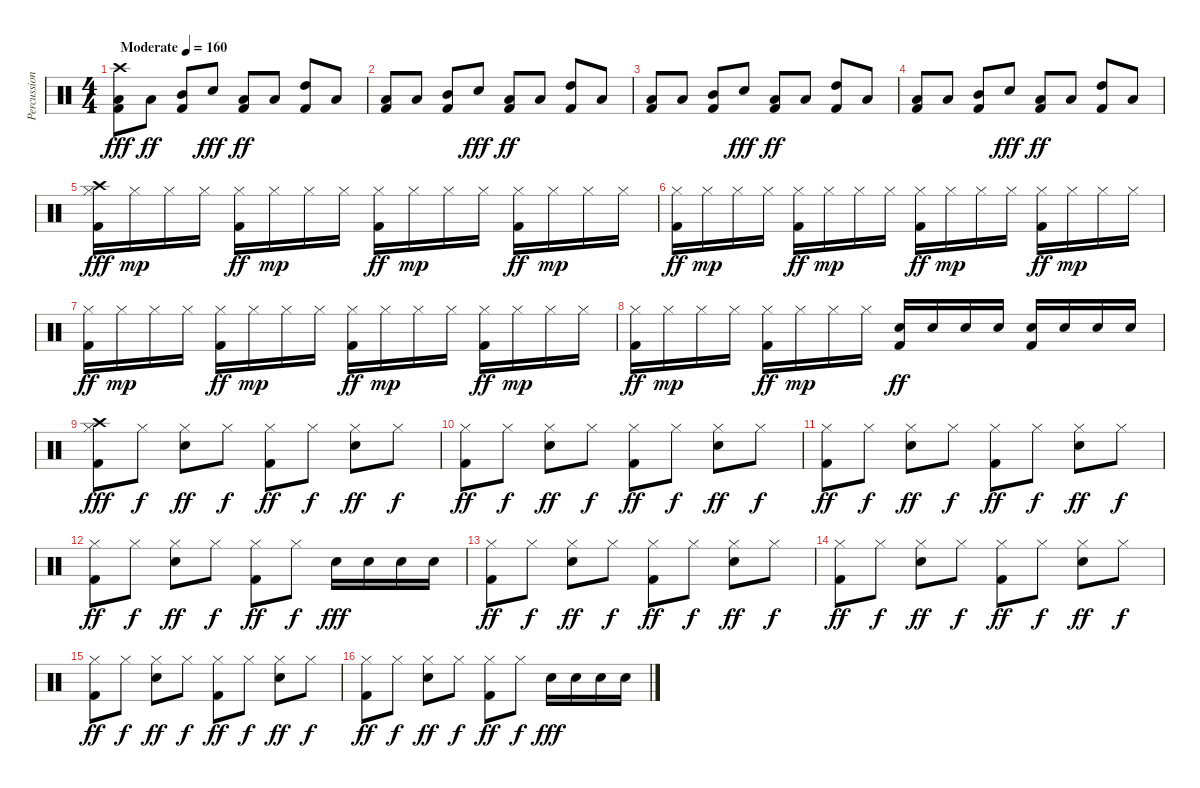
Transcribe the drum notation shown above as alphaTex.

\track ("Percussion" "Percussion") {instrument percussion}
\staff {score}
\articulation defaults
\ts (4 4)
\tempo (160 "Moderate")
\clef neutral
\ks c
("Low Floor Tom (hit)" "Kick (hit) 2" "Crash high (hit)").8{dy fff} "Low Floor Tom (hit)".8{dy ff} ("Mid Tom (hit)" "Kick (hit) 2").8 "Snare (hit) 2".8{dy fff} ("Low Floor Tom (hit)" "Kick (hit) 2").8{dy ff} "Low Floor Tom (hit)".8 ("High Tom (hit)" "Kick (hit) 2").8 "Low Floor Tom (hit)".8 |
("Low Floor Tom (hit)" "Kick (hit) 2").8 "Low Floor Tom (hit)".8 ("Mid Tom (hit)" "Kick (hit) 2").8 "Snare (hit) 2".8{dy fff} ("Low Floor Tom (hit)" "Kick (hit) 2").8{dy ff} "Low Floor Tom (hit)".8 ("High Tom (hit)" "Kick (hit) 2").8 "Low Floor Tom (hit)".8 |
("Low Floor Tom (hit)" "Kick (hit) 2").8 "Low Floor Tom (hit)".8 ("Mid Tom (hit)" "Kick (hit) 2").8 "Snare (hit) 2".8{dy fff} ("Low Floor Tom (hit)" "Kick (hit) 2").8{dy ff} "Low Floor Tom (hit)".8 ("High Tom (hit)" "Kick (hit) 2").8 "Low Floor Tom (hit)".8 |
("Low Floor Tom (hit)" "Kick (hit) 2").8 "Low Floor Tom (hit)".8 ("Mid Tom (hit)" "Kick (hit) 2").8 "Snare (hit) 2".8{dy fff} ("Low Floor Tom (hit)" "Kick (hit) 2").8{dy ff} "Low Floor Tom (hit)".8 ("High Tom (hit)" "Kick (hit) 2").8 "Low Floor Tom (hit)".8 |
("Hi-Hat (closed)" "Kick (hit) 2" "Crash high (hit)").16{dy fff} "Hi-Hat (closed)".16{dy mp} "Hi-Hat (closed)".16 "Hi-Hat (closed)".16 ("Hi-Hat (closed)" "Kick (hit) 2").16{dy ff} "Hi-Hat (closed)".16{dy mp} "Hi-Hat (closed)".16 "Hi-Hat (closed)".16 ("Hi-Hat (closed)" "Kick (hit) 2").16{dy ff} "Hi-Hat (closed)".16{dy mp} "Hi-Hat (closed)".16 "Hi-Hat (closed)".16 ("Hi-Hat (closed)" "Kick (hit) 2").16{dy ff} "Hi-Hat (closed)".16{dy mp} "Hi-Hat (closed)".16 "Hi-Hat (closed)".16 |
("Hi-Hat (closed)" "Kick (hit) 2").16{dy ff} "Hi-Hat (closed)".16{dy mp} "Hi-Hat (closed)".16 "Hi-Hat (closed)".16 ("Hi-Hat (closed)" "Kick (hit) 2").16{dy ff} "Hi-Hat (closed)".16{dy mp} "Hi-Hat (closed)".16 "Hi-Hat (closed)".16 ("Hi-Hat (closed)" "Kick (hit) 2").16{dy ff} "Hi-Hat (closed)".16{dy mp} "Hi-Hat (closed)".16 "Hi-Hat (closed)".16 ("Hi-Hat (closed)" "Kick (hit) 2").16{dy ff} "Hi-Hat (closed)".16{dy mp} "Hi-Hat (closed)".16 "Hi-Hat (closed)".16 |
("Hi-Hat (closed)" "Kick (hit) 2").16{dy ff} "Hi-Hat (closed)".16{dy mp} "Hi-Hat (closed)".16 "Hi-Hat (closed)".16 ("Hi-Hat (closed)" "Kick (hit) 2").16{dy ff} "Hi-Hat (closed)".16{dy mp} "Hi-Hat (closed)".16 "Hi-Hat (closed)".16 ("Hi-Hat (closed)" "Kick (hit) 2").16{dy ff} "Hi-Hat (closed)".16{dy mp} "Hi-Hat (closed)".16 "Hi-Hat (closed)".16 ("Hi-Hat (closed)" "Kick (hit) 2").16{dy ff} "Hi-Hat (closed)".16{dy mp} "Hi-Hat (closed)".16 "Hi-Hat (closed)".16 |
("Hi-Hat (closed)" "Kick (hit) 2").16{dy ff} "Hi-Hat (closed)".16{dy mp} "Hi-Hat (closed)".16 "Hi-Hat (closed)".16 ("Hi-Hat (closed)" "Kick (hit) 2").16{dy ff} "Hi-Hat (closed)".16{dy mp} "Hi-Hat (closed)".16 "Hi-Hat (closed)".16 ("Snare (hit) 2" "Kick (hit) 2").16{dy ff} "Snare (hit) 2".16 "Snare (hit) 2".16 "Snare (hit) 2".16 ("Snare (hit) 2" "Kick (hit) 2").16 "Snare (hit) 2".16 "Snare (hit) 2".16 "Snare (hit) 2".16 |
("Hi-Hat (closed)" "Kick (hit) 2" "Crash high (hit)").8{dy fff} "Hi-Hat (closed)".8{dy f} ("Hi-Hat (closed)" "Snare (hit) 2").8{dy ff} "Hi-Hat (closed)".8{dy f} ("Hi-Hat (closed)" "Kick (hit) 2").8{dy ff} "Hi-Hat (closed)".8{dy f} ("Hi-Hat (closed)" "Snare (hit) 2").8{dy ff} "Hi-Hat (closed)".8{dy f} |
("Hi-Hat (closed)" "Kick (hit) 2").8{dy ff} "Hi-Hat (closed)".8{dy f} ("Hi-Hat (closed)" "Snare (hit) 2").8{dy ff} "Hi-Hat (closed)".8{dy f} ("Hi-Hat (closed)" "Kick (hit) 2").8{dy ff} "Hi-Hat (closed)".8{dy f} ("Hi-Hat (closed)" "Snare (hit) 2").8{dy ff} "Hi-Hat (closed)".8{dy f} |
("Hi-Hat (closed)" "Kick (hit) 2").8{dy ff} "Hi-Hat (closed)".8{dy f} ("Hi-Hat (closed)" "Snare (hit) 2").8{dy ff} "Hi-Hat (closed)".8{dy f} ("Hi-Hat (closed)" "Kick (hit) 2").8{dy ff} "Hi-Hat (closed)".8{dy f} ("Hi-Hat (closed)" "Snare (hit) 2").8{dy ff} "Hi-Hat (closed)".8{dy f} |
("Hi-Hat (closed)" "Kick (hit) 2").8{dy ff} "Hi-Hat (closed)".8{dy f} ("Hi-Hat (closed)" "Snare (hit) 2").8{dy ff} "Hi-Hat (closed)".8{dy f} ("Hi-Hat (closed)" "Kick (hit) 2").8{dy ff} "Hi-Hat (closed)".8{dy f} "Snare (hit) 2".16{dy fff} "Snare (hit) 2".16 "Snare (hit) 2".16 "Snare (hit) 2".16 |
("Hi-Hat (closed)" "Kick (hit) 2").8{dy ff} "Hi-Hat (closed)".8{dy f} ("Hi-Hat (closed)" "Snare (hit) 2").8{dy ff} "Hi-Hat (closed)".8{dy f} ("Hi-Hat (closed)" "Kick (hit) 2").8{dy ff} "Hi-Hat (closed)".8{dy f} ("Hi-Hat (closed)" "Snare (hit) 2").8{dy ff} "Hi-Hat (closed)".8{dy f} |
("Hi-Hat (closed)" "Kick (hit) 2").8{dy ff} "Hi-Hat (closed)".8{dy f} ("Hi-Hat (closed)" "Snare (hit) 2").8{dy ff} "Hi-Hat (closed)".8{dy f} ("Hi-Hat (closed)" "Kick (hit) 2").8{dy ff} "Hi-Hat (closed)".8{dy f} ("Hi-Hat (closed)" "Snare (hit) 2").8{dy ff} "Hi-Hat (closed)".8{dy f} |
("Hi-Hat (closed)" "Kick (hit) 2").8{dy ff} "Hi-Hat (closed)".8{dy f} ("Hi-Hat (closed)" "Snare (hit) 2").8{dy ff} "Hi-Hat (closed)".8{dy f} ("Hi-Hat (closed)" "Kick (hit) 2").8{dy ff} "Hi-Hat (closed)".8{dy f} ("Hi-Hat (closed)" "Snare (hit) 2").8{dy ff} "Hi-Hat (closed)".8{dy f} |
("Hi-Hat (closed)" "Kick (hit) 2").8{dy ff} "Hi-Hat (closed)".8{dy f} ("Hi-Hat (closed)" "Snare (hit) 2").8{dy ff} "Hi-Hat (closed)".8{dy f} ("Hi-Hat (closed)" "Kick (hit) 2").8{dy ff} "Hi-Hat (closed)".8{dy f} "Snare (hit) 2".16{dy fff} "Snare (hit) 2".16 "Snare (hit) 2".16 "Snare (hit) 2".16
